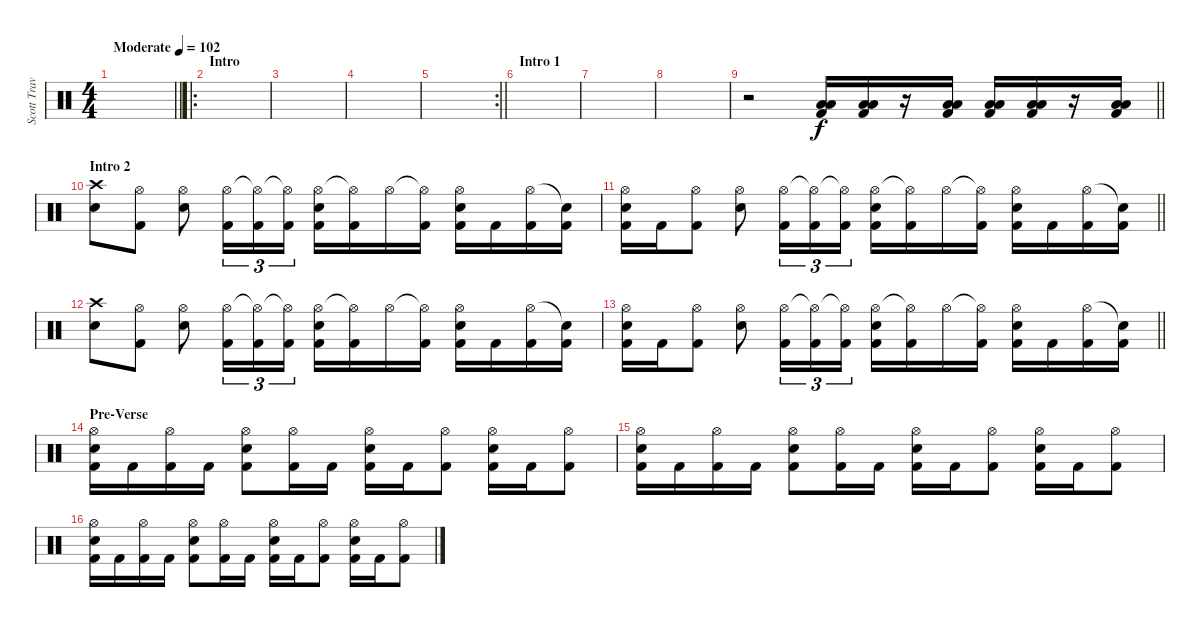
\track ("Scott Travis" "Scott Trav") {instrument percussion}
\staff {score}
\articulation defaults
\ts (4 4)
\tempo (102 "Moderate")
\clef neutral
\barLineRight lightlight
\ks c
|
\ro
\section ("" "Intro")
|
|
|
\rc 2
\barLineRight lightlight
|
\section ("" "Intro 1")
|
|
|
\barLineRight lightlight
r.2 ("Low Floor Tom (hit)" "Low Tom (hit)" "Kick (hit) 2").16 ("Low Floor Tom (hit)" "Low Tom (hit)" "Kick (hit) 2").16 r.16 ("Low Floor Tom (hit)" "Low Tom (hit)" "Kick (hit) 2").16 ("Low Floor Tom (hit)" "Low Tom (hit)" "Kick (hit) 2").16 ("Low Floor Tom (hit)" "Low Tom (hit)" "Kick (hit) 2").16 r.16 ("Low Floor Tom (hit)" "Low Tom (hit)" "Kick (hit) 2").16 |
\section ("" "Intro 2")
("Crash high (hit)" "Snare (hit) 2").8 ("Hi-Hat (open)" "Kick (hit) 2").8 ("Hi-Hat (open)" "Snare (hit) 2").8 ("Hi-Hat (open)" "Kick (hit) 2").16{tu (3 2)} ("Hi-Hat (open)"{t} "Kick (hit) 2").16{tu (3 2)} ("Hi-Hat (open)"{t} "Kick (hit) 2").16{tu (3 2)} ("Hi-Hat (open)" "Snare (hit) 2" "Kick (hit) 2").16 ("Hi-Hat (open)"{t} "Kick (hit) 2").16 "Hi-Hat (open)".16 ("Hi-Hat (open)"{t} "Kick (hit) 2").16 ("Hi-Hat (open)" "Snare (hit) 2" "Kick (hit) 2").16 "Kick (hit) 2".16 ("Hi-Hat (open)" "Kick (hit) 2").16 ("Snare (hit)"{t} "Kick (hit) 2").16 |
\barLineRight lightlight
("Hi-Hat (open)" "Snare (hit) 2" "Kick (hit) 2").16 "Kick (hit) 2".16 ("Hi-Hat (open)" "Kick (hit) 2").8 ("Hi-Hat (open)" "Snare (hit) 2").8 ("Hi-Hat (open)" "Kick (hit) 2").16{tu (3 2)} ("Hi-Hat (open)"{t} "Kick (hit) 2").16{tu (3 2)} ("Hi-Hat (open)"{t} "Kick (hit) 2").16{tu (3 2)} ("Hi-Hat (open)" "Snare (hit) 2" "Kick (hit) 2").16 ("Hi-Hat (open)"{t} "Kick (hit) 2").16 "Hi-Hat (open)".16 ("Hi-Hat (open)"{t} "Kick (hit) 2").16 ("Hi-Hat (open)" "Snare (hit) 2" "Kick (hit) 2").16 "Kick (hit) 2".16 ("Hi-Hat (open)" "Kick (hit) 2").16 ("Snare (hit)"{t} "Kick (hit) 2").16 |
("Crash high (hit)" "Snare (hit) 2").8 ("Hi-Hat (open)" "Kick (hit) 2").8 ("Hi-Hat (open)" "Snare (hit) 2").8 ("Hi-Hat (open)" "Kick (hit) 2").16{tu (3 2)} ("Hi-Hat (open)"{t} "Kick (hit) 2").16{tu (3 2)} ("Hi-Hat (open)"{t} "Kick (hit) 2").16{tu (3 2)} ("Hi-Hat (open)" "Snare (hit) 2" "Kick (hit) 2").16 ("Hi-Hat (open)"{t} "Kick (hit) 2").16 "Hi-Hat (open)".16 ("Hi-Hat (open)"{t} "Kick (hit) 2").16 ("Hi-Hat (open)" "Snare (hit) 2" "Kick (hit) 2").16 "Kick (hit) 2".16 ("Hi-Hat (open)" "Kick (hit) 2").16 ("Snare (hit)"{t} "Kick (hit) 2").16 |
\barLineRight lightlight
("Hi-Hat (open)" "Snare (hit) 2" "Kick (hit) 2").16 "Kick (hit) 2".16 ("Hi-Hat (open)" "Kick (hit) 2").8 ("Hi-Hat (open)" "Snare (hit) 2").8 ("Hi-Hat (open)" "Kick (hit) 2").16{tu (3 2)} ("Hi-Hat (open)"{t} "Kick (hit) 2").16{tu (3 2)} ("Hi-Hat (open)"{t} "Kick (hit) 2").16{tu (3 2)} ("Hi-Hat (open)" "Snare (hit) 2" "Kick (hit) 2").16 ("Hi-Hat (open)"{t} "Kick (hit) 2").16 "Hi-Hat (open)".16 ("Hi-Hat (open)"{t} "Kick (hit) 2").16 ("Hi-Hat (open)" "Snare (hit) 2" "Kick (hit) 2").16 "Kick (hit) 2".16 ("Hi-Hat (open)" "Kick (hit) 2").16 ("Snare (hit)"{t} "Kick (hit) 2").16 |
\section ("" "Pre-Verse")
("Hi-Hat (open)" "Snare (hit) 2" "Kick (hit) 2").16 "Kick (hit) 2".16 ("Hi-Hat (open)" "Kick (hit) 2").16 "Kick (hit) 2".16 ("Hi-Hat (open)" "Snare (hit) 2" "Kick (hit) 2").8 ("Hi-Hat (open)" "Kick (hit) 2").16 "Kick (hit) 2".16 ("Hi-Hat (open)" "Snare (hit) 2" "Kick (hit) 2").16 "Kick (hit) 2".16 ("Hi-Hat (open)" "Kick (hit) 2").8 ("Hi-Hat (open)" "Snare (hit) 2" "Kick (hit) 2").16 "Kick (hit) 2".16 ("Hi-Hat (open)" "Kick (hit) 2").8 |
("Hi-Hat (open)" "Snare (hit) 2" "Kick (hit) 2").16 "Kick (hit) 2".16 ("Hi-Hat (open)" "Kick (hit) 2").16 "Kick (hit) 2".16 ("Hi-Hat (open)" "Snare (hit) 2" "Kick (hit) 2").8 ("Hi-Hat (open)" "Kick (hit) 2").16 "Kick (hit) 2".16 ("Hi-Hat (open)" "Snare (hit) 2" "Kick (hit) 2").16 "Kick (hit) 2".16 ("Hi-Hat (open)" "Kick (hit) 2").8 ("Hi-Hat (open)" "Snare (hit) 2" "Kick (hit) 2").16 "Kick (hit) 2".16 ("Hi-Hat (open)" "Kick (hit) 2").8 |
("Hi-Hat (open)" "Snare (hit) 2" "Kick (hit) 2").16 "Kick (hit) 2".16 ("Hi-Hat (open)" "Kick (hit) 2").16 "Kick (hit) 2".16 ("Hi-Hat (open)" "Snare (hit) 2" "Kick (hit) 2").8 ("Hi-Hat (open)" "Kick (hit) 2").16 "Kick (hit) 2".16 ("Hi-Hat (open)" "Snare (hit) 2" "Kick (hit) 2").16 "Kick (hit) 2".16 ("Hi-Hat (open)" "Kick (hit) 2").8 ("Hi-Hat (open)" "Snare (hit) 2" "Kick (hit) 2").16 "Kick (hit) 2".16 ("Hi-Hat (open)" "Kick (hit) 2").8
